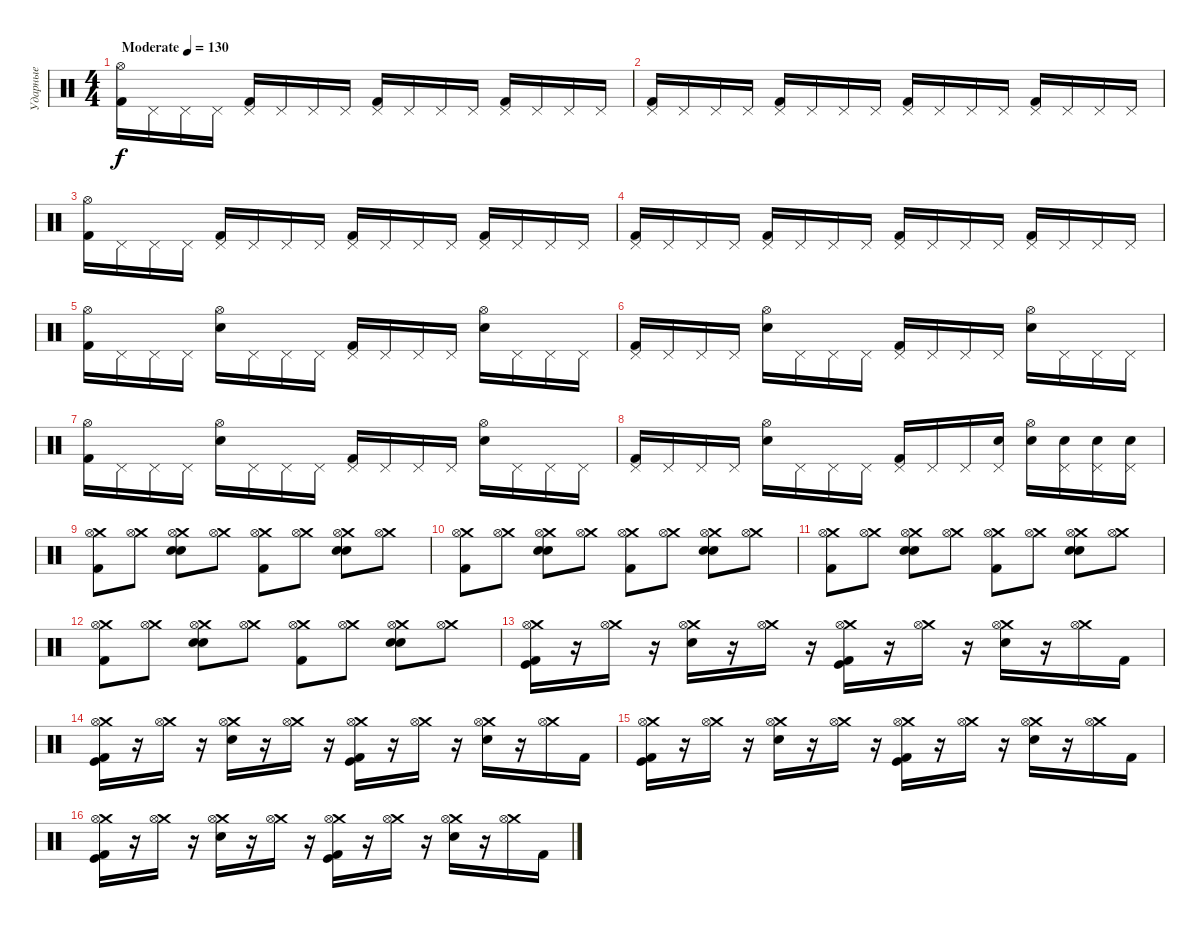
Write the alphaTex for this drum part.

\track ("Ударные" "Ударные") {instrument percussion}
\staff {score}
\articulation defaults
\ts (4 4)
\tempo (130 "Moderate")
\clef neutral
\ks c
("Hi-Hat (open)" "Kick (hit) 2").16{dy f} "Pedal Hi-Hat (hit)".16 "Pedal Hi-Hat (hit)".16 "Pedal Hi-Hat (hit)".16 ("Pedal Hi-Hat (hit)" "Kick (hit) 2").16 "Pedal Hi-Hat (hit)".16 "Pedal Hi-Hat (hit)".16 "Pedal Hi-Hat (hit)".16 ("Pedal Hi-Hat (hit)" "Kick (hit) 2").16 "Pedal Hi-Hat (hit)".16 "Pedal Hi-Hat (hit)".16 "Pedal Hi-Hat (hit)".16 ("Pedal Hi-Hat (hit)" "Kick (hit) 2").16 "Pedal Hi-Hat (hit)".16 "Pedal Hi-Hat (hit)".16 "Pedal Hi-Hat (hit)".16 |
("Pedal Hi-Hat (hit)" "Kick (hit) 2").16 "Pedal Hi-Hat (hit)".16 "Pedal Hi-Hat (hit)".16 "Pedal Hi-Hat (hit)".16 ("Pedal Hi-Hat (hit)" "Kick (hit) 2").16 "Pedal Hi-Hat (hit)".16 "Pedal Hi-Hat (hit)".16 "Pedal Hi-Hat (hit)".16 ("Pedal Hi-Hat (hit)" "Kick (hit) 2").16 "Pedal Hi-Hat (hit)".16 "Pedal Hi-Hat (hit)".16 "Pedal Hi-Hat (hit)".16 ("Pedal Hi-Hat (hit)" "Kick (hit) 2").16 "Pedal Hi-Hat (hit)".16 "Pedal Hi-Hat (hit)".16 "Pedal Hi-Hat (hit)".16 |
("Hi-Hat (open)" "Kick (hit) 2").16 "Pedal Hi-Hat (hit)".16 "Pedal Hi-Hat (hit)".16 "Pedal Hi-Hat (hit)".16 ("Pedal Hi-Hat (hit)" "Kick (hit) 2").16 "Pedal Hi-Hat (hit)".16 "Pedal Hi-Hat (hit)".16 "Pedal Hi-Hat (hit)".16 ("Pedal Hi-Hat (hit)" "Kick (hit) 2").16 "Pedal Hi-Hat (hit)".16 "Pedal Hi-Hat (hit)".16 "Pedal Hi-Hat (hit)".16 ("Pedal Hi-Hat (hit)" "Kick (hit) 2").16 "Pedal Hi-Hat (hit)".16 "Pedal Hi-Hat (hit)".16 "Pedal Hi-Hat (hit)".16 |
("Pedal Hi-Hat (hit)" "Kick (hit) 2").16 "Pedal Hi-Hat (hit)".16 "Pedal Hi-Hat (hit)".16 "Pedal Hi-Hat (hit)".16 ("Pedal Hi-Hat (hit)" "Kick (hit) 2").16 "Pedal Hi-Hat (hit)".16 "Pedal Hi-Hat (hit)".16 "Pedal Hi-Hat (hit)".16 ("Pedal Hi-Hat (hit)" "Kick (hit) 2").16 "Pedal Hi-Hat (hit)".16 "Pedal Hi-Hat (hit)".16 "Pedal Hi-Hat (hit)".16 ("Pedal Hi-Hat (hit)" "Kick (hit) 2").16 "Pedal Hi-Hat (hit)".16 "Pedal Hi-Hat (hit)".16 "Pedal Hi-Hat (hit)".16 |
("Hi-Hat (open)" "Kick (hit) 2").16 "Pedal Hi-Hat (hit)".16 "Pedal Hi-Hat (hit)".16 "Pedal Hi-Hat (hit)".16 ("Hi-Hat (open)" "Snare (hit) 2").16 "Pedal Hi-Hat (hit)".16 "Pedal Hi-Hat (hit)".16 "Pedal Hi-Hat (hit)".16 ("Pedal Hi-Hat (hit)" "Kick (hit) 2").16 "Pedal Hi-Hat (hit)".16 "Pedal Hi-Hat (hit)".16 "Pedal Hi-Hat (hit)".16 ("Hi-Hat (open)" "Snare (hit) 2").16 "Pedal Hi-Hat (hit)".16 "Pedal Hi-Hat (hit)".16 "Pedal Hi-Hat (hit)".16 |
("Pedal Hi-Hat (hit)" "Kick (hit) 2").16 "Pedal Hi-Hat (hit)".16 "Pedal Hi-Hat (hit)".16 "Pedal Hi-Hat (hit)".16 ("Hi-Hat (open)" "Snare (hit) 2").16 "Pedal Hi-Hat (hit)".16 "Pedal Hi-Hat (hit)".16 "Pedal Hi-Hat (hit)".16 ("Pedal Hi-Hat (hit)" "Kick (hit) 2").16 "Pedal Hi-Hat (hit)".16 "Pedal Hi-Hat (hit)".16 "Pedal Hi-Hat (hit)".16 ("Hi-Hat (open)" "Snare (hit) 2").16 "Pedal Hi-Hat (hit)".16 "Pedal Hi-Hat (hit)".16 "Pedal Hi-Hat (hit)".16 |
("Hi-Hat (open)" "Kick (hit) 2").16 "Pedal Hi-Hat (hit)".16 "Pedal Hi-Hat (hit)".16 "Pedal Hi-Hat (hit)".16 ("Hi-Hat (open)" "Snare (hit) 2").16 "Pedal Hi-Hat (hit)".16 "Pedal Hi-Hat (hit)".16 "Pedal Hi-Hat (hit)".16 ("Pedal Hi-Hat (hit)" "Kick (hit) 2").16 "Pedal Hi-Hat (hit)".16 "Pedal Hi-Hat (hit)".16 "Pedal Hi-Hat (hit)".16 ("Hi-Hat (open)" "Snare (hit) 2").16 "Pedal Hi-Hat (hit)".16 "Pedal Hi-Hat (hit)".16 "Pedal Hi-Hat (hit)".16 |
("Pedal Hi-Hat (hit)" "Kick (hit) 2").16 "Pedal Hi-Hat (hit)".16 "Pedal Hi-Hat (hit)".16 "Pedal Hi-Hat (hit)".16 ("Hi-Hat (open)" "Snare (hit) 2").16 "Pedal Hi-Hat (hit)".16 "Pedal Hi-Hat (hit)".16 "Pedal Hi-Hat (hit)".16 ("Pedal Hi-Hat (hit)" "Kick (hit) 2").16 "Pedal Hi-Hat (hit)".16 "Pedal Hi-Hat (hit)".16 ("Pedal Hi-Hat (hit)" "Snare (hit) 2").16 ("Hi-Hat (open)" "Snare (hit) 2").16 ("Pedal Hi-Hat (hit)" "Snare (hit) 2").16 ("Pedal Hi-Hat (hit)" "Snare (hit) 2").16 ("Pedal Hi-Hat (hit)" "Snare (hit) 2").16 |
("Crash medium (hit)" "Hi-Hat (open)" "Kick (hit) 2").8 ("Crash medium (hit)" "Hi-Hat (open)").8 ("Crash medium (hit)" "Hi-Hat (open)" "Snare (hit) 2" "Snare (hit) 2").8 ("Crash medium (hit)" "Hi-Hat (open)").8 ("Crash medium (hit)" "Hi-Hat (open)" "Kick (hit) 2").8 ("Crash medium (hit)" "Hi-Hat (open)").8 ("Crash medium (hit)" "Hi-Hat (open)" "Snare (hit) 2" "Snare (hit) 2").8 ("Crash medium (hit)" "Hi-Hat (open)").8 |
("Crash medium (hit)" "Hi-Hat (open)" "Kick (hit) 2").8 ("Crash medium (hit)" "Hi-Hat (open)").8 ("Crash medium (hit)" "Hi-Hat (open)" "Snare (hit) 2" "Snare (hit) 2").8 ("Crash medium (hit)" "Hi-Hat (open)").8 ("Crash medium (hit)" "Hi-Hat (open)" "Kick (hit) 2").8 ("Crash medium (hit)" "Hi-Hat (open)").8 ("Crash medium (hit)" "Hi-Hat (open)" "Snare (hit) 2" "Snare (hit) 2").8 ("Crash medium (hit)" "Hi-Hat (open)").8 |
("Crash medium (hit)" "Hi-Hat (open)" "Kick (hit) 2").8 ("Crash medium (hit)" "Hi-Hat (open)").8 ("Crash medium (hit)" "Hi-Hat (open)" "Snare (hit) 2" "Snare (hit) 2").8 ("Crash medium (hit)" "Hi-Hat (open)").8 ("Crash medium (hit)" "Hi-Hat (open)" "Kick (hit) 2").8 ("Crash medium (hit)" "Hi-Hat (open)").8 ("Crash medium (hit)" "Hi-Hat (open)" "Snare (hit) 2" "Snare (hit) 2").8 ("Crash medium (hit)" "Hi-Hat (open)").8 |
("Crash medium (hit)" "Hi-Hat (open)" "Kick (hit) 2").8 ("Crash medium (hit)" "Hi-Hat (open)").8 ("Crash medium (hit)" "Hi-Hat (open)" "Snare (hit) 2" "Snare (hit) 2").8 ("Crash medium (hit)" "Hi-Hat (open)").8 ("Crash medium (hit)" "Hi-Hat (open)" "Kick (hit) 2").8 ("Crash medium (hit)" "Hi-Hat (open)").8 ("Crash medium (hit)" "Hi-Hat (open)" "Snare (hit) 2" "Snare (hit) 2").8 ("Crash medium (hit)" "Hi-Hat (open)").8 |
("Crash medium (hit)" "Hi-Hat (open)" "Kick (hit) 2" "Kick (hit)").16 r.16 ("Crash medium (hit)" "Hi-Hat (open)").16 r.16 ("Crash medium (hit)" "Hi-Hat (open)" "Snare (hit) 2").16 r.16 ("Crash medium (hit)" "Hi-Hat (open)").16 r.16 ("Crash medium (hit)" "Hi-Hat (open)" "Kick (hit) 2" "Kick (hit)").16 r.16 ("Crash medium (hit)" "Hi-Hat (open)").16 r.16 ("Crash medium (hit)" "Hi-Hat (open)" "Snare (hit) 2").16 r.16 ("Crash medium (hit)" "Hi-Hat (open)").16 "Kick (hit) 2".16 |
("Crash medium (hit)" "Hi-Hat (open)" "Kick (hit) 2" "Kick (hit)").16 r.16 ("Crash medium (hit)" "Hi-Hat (open)").16 r.16 ("Crash medium (hit)" "Hi-Hat (open)" "Snare (hit) 2").16 r.16 ("Crash medium (hit)" "Hi-Hat (open)").16 r.16 ("Crash medium (hit)" "Hi-Hat (open)" "Kick (hit) 2" "Kick (hit)").16 r.16 ("Crash medium (hit)" "Hi-Hat (open)").16 r.16 ("Crash medium (hit)" "Hi-Hat (open)" "Snare (hit) 2").16 r.16 ("Crash medium (hit)" "Hi-Hat (open)").16 "Kick (hit) 2".16 |
("Crash medium (hit)" "Hi-Hat (open)" "Kick (hit) 2" "Kick (hit)").16 r.16 ("Crash medium (hit)" "Hi-Hat (open)").16 r.16 ("Crash medium (hit)" "Hi-Hat (open)" "Snare (hit) 2").16 r.16 ("Crash medium (hit)" "Hi-Hat (open)").16 r.16 ("Crash medium (hit)" "Hi-Hat (open)" "Kick (hit) 2" "Kick (hit)").16 r.16 ("Crash medium (hit)" "Hi-Hat (open)").16 r.16 ("Crash medium (hit)" "Hi-Hat (open)" "Snare (hit) 2").16 r.16 ("Crash medium (hit)" "Hi-Hat (open)").16 "Kick (hit) 2".16 |
("Crash medium (hit)" "Hi-Hat (open)" "Kick (hit) 2" "Kick (hit)").16 r.16 ("Crash medium (hit)" "Hi-Hat (open)").16 r.16 ("Crash medium (hit)" "Hi-Hat (open)" "Snare (hit) 2").16 r.16 ("Crash medium (hit)" "Hi-Hat (open)").16 r.16 ("Crash medium (hit)" "Hi-Hat (open)" "Kick (hit) 2" "Kick (hit)").16 r.16 ("Crash medium (hit)" "Hi-Hat (open)").16 r.16 ("Crash medium (hit)" "Hi-Hat (open)" "Snare (hit) 2").16 r.16 ("Crash medium (hit)" "Hi-Hat (open)").16 "Kick (hit) 2".16
